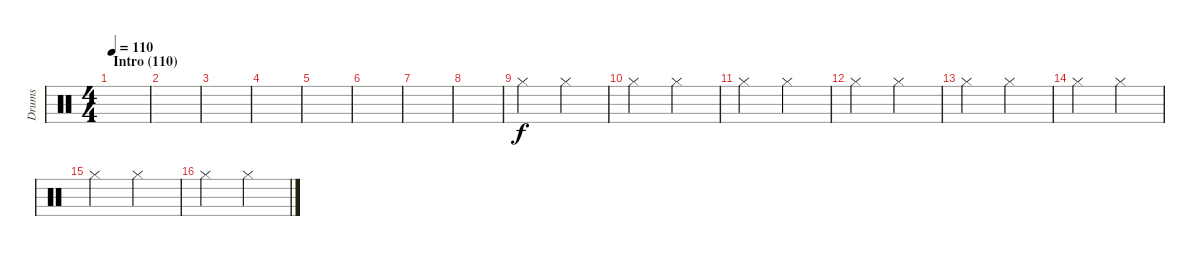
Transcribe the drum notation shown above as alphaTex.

\track ("Drums" "Drums") {instrument percussion}
\staff {score}
\articulation defaults
\ts (4 4)
\section ("" "Intro (110)")
\tempo 110
\clef neutral
\ks c
|
|
|
|
|
|
|
|
"Hi-Hat (closed)".2 "Hi-Hat (closed)".2 |
"Hi-Hat (closed)".2 "Hi-Hat (closed)".2 |
"Hi-Hat (closed)".2 "Hi-Hat (closed)".2 |
"Hi-Hat (closed)".2 "Hi-Hat (closed)".2 |
"Hi-Hat (closed)".2 "Hi-Hat (closed)".2 |
"Hi-Hat (closed)".2 "Hi-Hat (closed)".2 |
"Hi-Hat (closed)".2 "Hi-Hat (closed)".2 |
"Hi-Hat (closed)".2 "Hi-Hat (closed)".2
